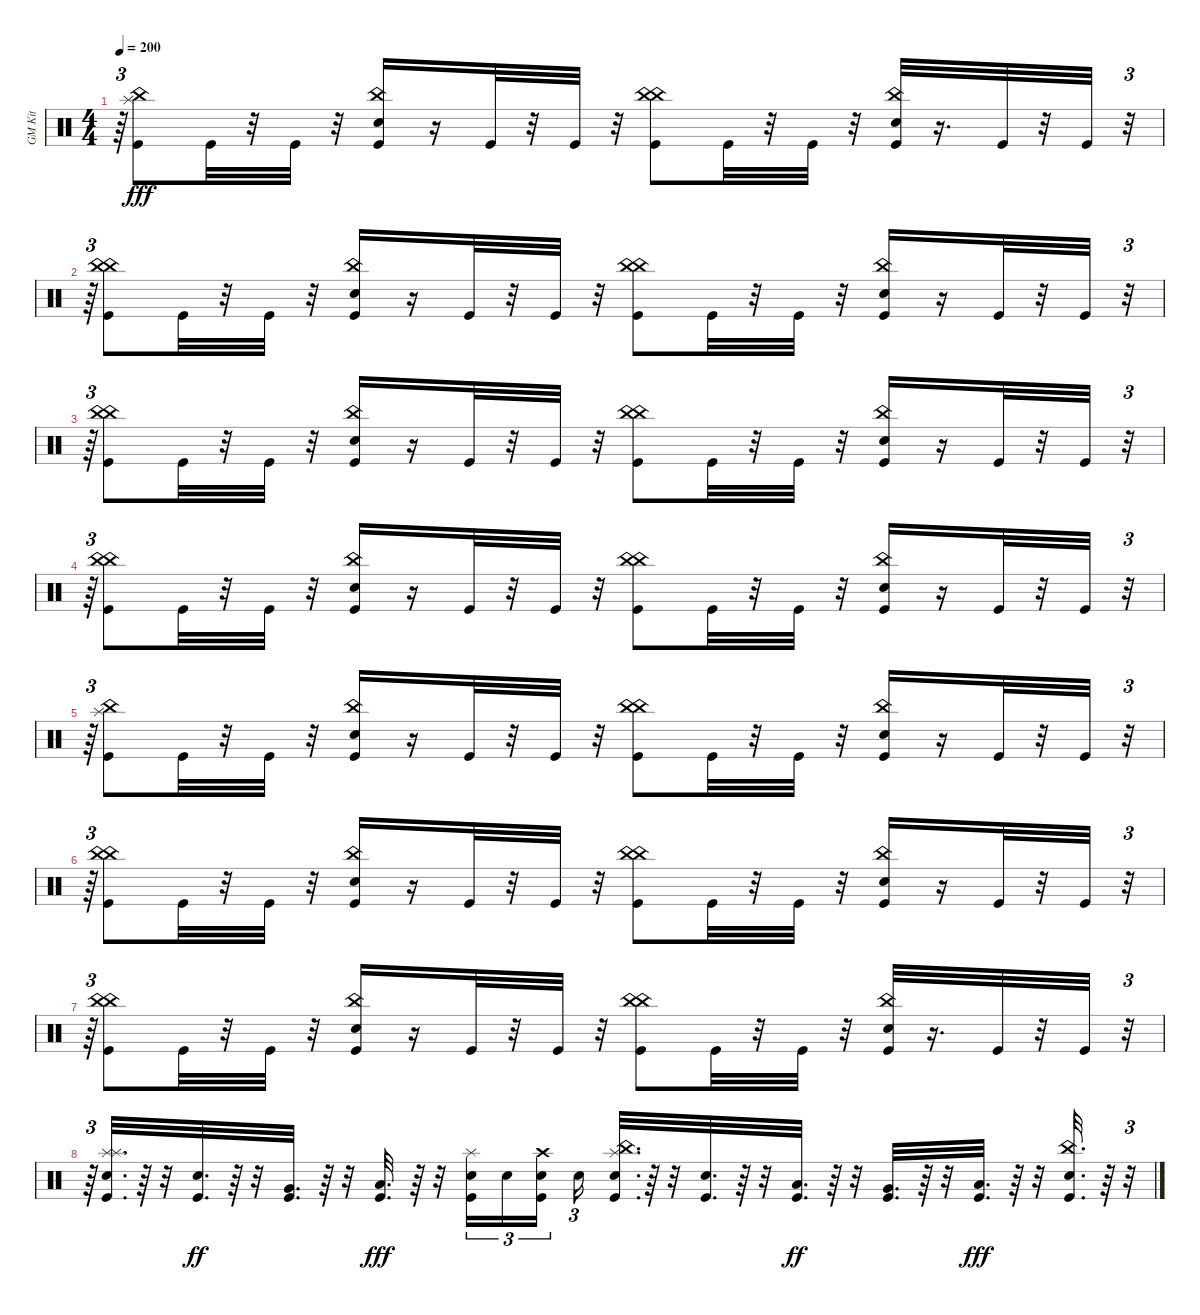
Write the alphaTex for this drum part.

\track ("GM Kit" "GM Kit") {instrument percussion}
\staff {score}
\articulation defaults
\ts (4 4)
\tempo 200
\clef neutral
\ks c
r.64{tu (3 2) dy fff} ("Kick (hit)" "China (hit)" "Splash (hit)").8 "Kick (hit)".32 r.32 "Kick (hit)".32 r.32 ("Kick (hit)" "Snare (hit) 2" "China (hit)").16 r.16 "Kick (hit)".32 r.32 "Kick (hit)".32 r.32 ("Kick (hit)" "China (hit)" "China (hit)").8 "Kick (hit)".32 r.32 "Kick (hit)".32 r.32 ("Kick (hit)" "Snare (hit) 2" "China (hit)").32 r.16{d} "Kick (hit)".32 r.32 "Kick (hit)".32 r.32{tu (3 2)} |
r.64{tu (3 2)} ("Kick (hit)" "China (hit)" "China (hit)").8 "Kick (hit)".32 r.32 "Kick (hit)".32 r.32 ("Kick (hit)" "Snare (hit) 2" "China (hit)").16 r.16 "Kick (hit)".32 r.32 "Kick (hit)".32 r.32 ("Kick (hit)" "China (hit)" "China (hit)").8 "Kick (hit)".32 r.32 "Kick (hit)".32 r.32 ("Kick (hit)" "Snare (hit) 2" "China (hit)").16 r.16 "Kick (hit)".32 r.32 "Kick (hit)".32 r.32{tu (3 2)} |
r.64{tu (3 2)} ("Kick (hit)" "China (hit)" "China (hit)").8 "Kick (hit)".32 r.32 "Kick (hit)".32 r.32 ("Kick (hit)" "Snare (hit) 2" "China (hit)").16 r.16 "Kick (hit)".32 r.32 "Kick (hit)".32 r.32 ("Kick (hit)" "China (hit)" "China (hit)").8 "Kick (hit)".32 r.32 "Kick (hit)".32 r.32 ("Kick (hit)" "Snare (hit) 2" "China (hit)").16 r.16 "Kick (hit)".32 r.32 "Kick (hit)".32 r.32{tu (3 2)} |
r.64{tu (3 2)} ("Kick (hit)" "China (hit)" "China (hit)").8 "Kick (hit)".32 r.32 "Kick (hit)".32 r.32 ("Kick (hit)" "Snare (hit) 2" "China (hit)").16 r.16 "Kick (hit)".32 r.32 "Kick (hit)".32 r.32 ("Kick (hit)" "China (hit)" "China (hit)").8 "Kick (hit)".32 r.32 "Kick (hit)".32 r.32 ("Kick (hit)" "Snare (hit) 2" "China (hit)").16 r.16 "Kick (hit)".32 r.32 "Kick (hit)".32 r.32{tu (3 2)} |
r.64{tu (3 2)} ("Kick (hit)" "China (hit)" "Splash (hit)").8 "Kick (hit)".32 r.32 "Kick (hit)".32 r.32 ("Kick (hit)" "Snare (hit) 2" "China (hit)").16 r.16 "Kick (hit)".32 r.32 "Kick (hit)".32 r.32 ("Kick (hit)" "China (hit)" "China (hit)").8 "Kick (hit)".32 r.32 "Kick (hit)".32 r.32 ("Kick (hit)" "Snare (hit) 2" "China (hit)").16 r.16 "Kick (hit)".32 r.32 "Kick (hit)".32 r.32{tu (3 2)} |
r.64{tu (3 2)} ("Kick (hit)" "China (hit)" "China (hit)").8 "Kick (hit)".32 r.32 "Kick (hit)".32 r.32 ("Kick (hit)" "Snare (hit) 2" "China (hit)").16 r.16 "Kick (hit)".32 r.32 "Kick (hit)".32 r.32 ("Kick (hit)" "China (hit)" "China (hit)").8 "Kick (hit)".32 r.32 "Kick (hit)".32 r.32 ("Kick (hit)" "Snare (hit) 2" "China (hit)").16 r.16 "Kick (hit)".32 r.32 "Kick (hit)".32 r.32{tu (3 2)} |
r.64{tu (3 2)} ("Kick (hit)" "China (hit)" "China (hit)").8 "Kick (hit)".32 r.32 "Kick (hit)".32 r.32 ("Kick (hit)" "Snare (hit) 2" "China (hit)").16 r.16 "Kick (hit)".32 r.32 "Kick (hit)".32 r.32 ("Kick (hit)" "China (hit)" "China (hit)").8 "Kick (hit)".32 r.32 "Kick (hit)".32 r.32 ("Kick (hit)" "Snare (hit) 2" "China (hit)").32 r.16{d} "Kick (hit)".32 r.32 "Kick (hit)".32 r.32{tu (3 2)} |
r.64{tu (3 2)} ("Kick (hit)" "Snare (hit) 2" "Splash (hit)" "Splash (hit)").32{d} r.64 r.32 ("Kick (hit)" "Snare (hit) 2").32{d dy ff} r.64 r.32 ("Kick (hit)" "Very Low Tom (hit)").32{d} r.64 r.32 ("Kick (hit)" "Low Floor Tom (hit)").32{d dy fff} r.64 r.32 ("Kick (hit)" "Snare (hit) 2" "Splash (hit)").16{tu (3 2)} "Hand Clap (hit)".16{tu (3 2)} ("Kick (hit)" "Snare (hit) 2" "Crash high (hit)").16{tu (3 2)} "Hand Clap (hit)".16{tu (3 2)} ("Kick (hit)" "Snare (hit) 2" "China (hit)" "Splash (hit)").32{d} r.64 r.32 ("Kick (hit)" "Snare (hit) 2").32{d} r.64 r.32 ("Kick (hit)" "Low Tom (hit)").32{d dy ff} r.64 r.32 ("Kick (hit)" "Very Low Tom (hit)").32{d} r.64 r.32 ("Kick (hit)" "Low Floor Tom (hit)").32{d dy fff} r.64 r.32 ("Kick (hit)" "Snare (hit) 2" "China (hit)").32{d} r.64 r.32{tu (3 2)}
